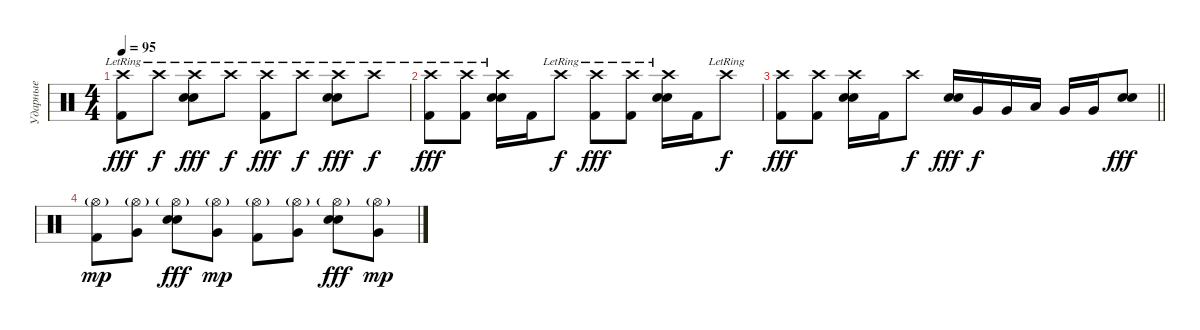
\track ("Ударные" "Ударные") {instrument percussion}
\staff {score}
\articulation defaults
\ts (4 4)
\tempo 95
\clef neutral
\ks c
("Crash high (hit)"{lr} "Kick (hit) 2").8{dy fff} "Crash high (hit)"{lr}.8{dy f} ("Crash high (hit)"{lr} "Electric Snare (hit)" "Snare (hit) 2").8{dy fff} "Crash high (hit)"{lr}.8{dy f} ("Crash high (hit)"{lr} "Kick (hit) 2").8{dy fff} "Crash high (hit)"{lr}.8{dy f} ("Crash high (hit)"{lr} "Electric Snare (hit)" "Snare (hit) 2").8{dy fff} "Crash high (hit)"{lr}.8{dy f} |
("Crash high (hit)"{lr} "Kick (hit) 2").8{dy fff} ("Crash high (hit)"{lr} "Kick (hit) 2").8 ("Crash high (hit)"{lr} "Electric Snare (hit)" "Snare (hit) 2").16 "Kick (hit) 2".16 "Crash high (hit)"{lr}.8{dy f} ("Crash high (hit)"{lr} "Kick (hit) 2").8{dy fff} ("Crash high (hit)"{lr} "Kick (hit) 2").8 ("Crash high (hit)"{lr} "Electric Snare (hit)" "Snare (hit) 2").16 "Kick (hit) 2".16 "Crash high (hit)"{lr}.8{dy f} |
\barLineRight lightlight
("Crash high (hit)" "Kick (hit) 2").8{dy fff} ("Crash high (hit)" "Kick (hit) 2").8 ("Crash high (hit)" "Electric Snare (hit)" "Snare (hit) 2").16 "Kick (hit) 2".16 "Crash high (hit)".8{dy f} ("Electric Snare (hit)" "Snare (hit) 2").16{dy fff} "Very Low Tom (hit)".16{dy f} "Very Low Tom (hit)".16 "Low Tom (hit)".16 "Very Low Tom (hit)".16 "Very Low Tom (hit)".16 ("Electric Snare (hit)" "Snare (hit) 2").8{dy fff} |
("Hi-Hat (open)"{g} "Kick (hit) 2").8{dy mp volume 0} ("Hi-Hat (open)"{g} "Very Low Tom (hit)").8 ("Hi-Hat (open)"{g} "Electric Snare (hit)" "Snare (hit) 2").8{dy fff} ("Hi-Hat (open)"{g} "Very Low Tom (hit)").8{dy mp} ("Hi-Hat (open)"{g} "Kick (hit) 2").8 ("Hi-Hat (open)"{g} "Very Low Tom (hit)").8 ("Hi-Hat (open)"{g} "Electric Snare (hit)" "Snare (hit) 2").8{dy fff} ("Hi-Hat (open)"{g} "Very Low Tom (hit)").8{dy mp}
